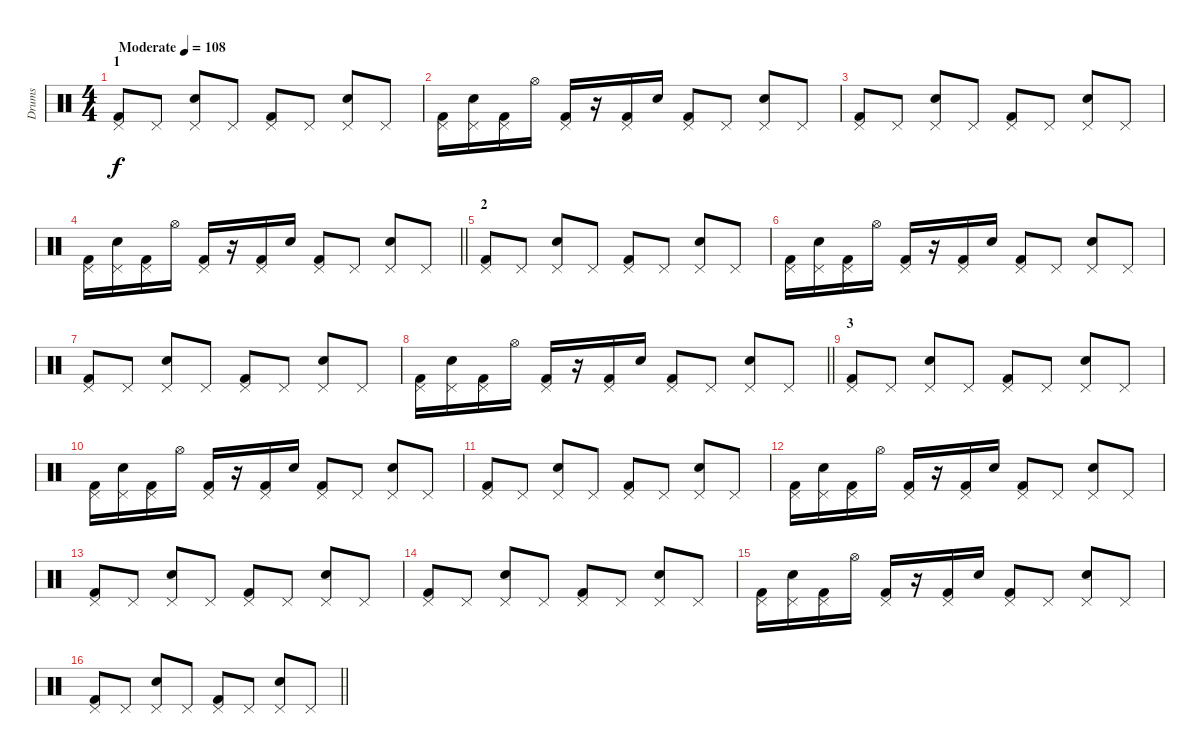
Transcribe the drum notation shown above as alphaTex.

\track ("Drums" "Drums") {instrument percussion}
\staff {score}
\articulation defaults
\ts (4 4)
\section ("" "1")
\tempo (108 "Moderate")
\clef neutral
\ks c
("Pedal Hi-Hat (hit)" "Kick (hit) 2").8{dy f} "Pedal Hi-Hat (hit)".8 ("Pedal Hi-Hat (hit)" "Electric Snare (hit)").8 "Pedal Hi-Hat (hit)".8 ("Pedal Hi-Hat (hit)" "Kick (hit) 2").8 "Pedal Hi-Hat (hit)".8 ("Pedal Hi-Hat (hit)" "Electric Snare (hit)").8 "Pedal Hi-Hat (hit)".8 |
("Pedal Hi-Hat (hit)" "Kick (hit) 2").16 ("Pedal Hi-Hat (hit)" "Electric Snare (hit)").16 ("Pedal Hi-Hat (hit)" "Kick (hit) 2").16 "Hi-Hat (open)".16 ("Pedal Hi-Hat (hit)" "Kick (hit) 2").16 r.16 ("Pedal Hi-Hat (hit)" "Kick (hit) 2").16 "Electric Snare (hit)".16 ("Pedal Hi-Hat (hit)" "Kick (hit) 2").8 "Pedal Hi-Hat (hit)".8 ("Pedal Hi-Hat (hit)" "Electric Snare (hit)").8 "Pedal Hi-Hat (hit)".8 |
("Pedal Hi-Hat (hit)" "Kick (hit) 2").8 "Pedal Hi-Hat (hit)".8 ("Pedal Hi-Hat (hit)" "Electric Snare (hit)").8 "Pedal Hi-Hat (hit)".8 ("Pedal Hi-Hat (hit)" "Kick (hit) 2").8 "Pedal Hi-Hat (hit)".8 ("Pedal Hi-Hat (hit)" "Electric Snare (hit)").8 "Pedal Hi-Hat (hit)".8 |
\barLineRight lightlight
("Pedal Hi-Hat (hit)" "Kick (hit) 2").16 ("Pedal Hi-Hat (hit)" "Electric Snare (hit)").16 ("Pedal Hi-Hat (hit)" "Kick (hit) 2").16 "Hi-Hat (open)".16 ("Pedal Hi-Hat (hit)" "Kick (hit) 2").16 r.16 ("Pedal Hi-Hat (hit)" "Kick (hit) 2").16 "Electric Snare (hit)".16 ("Pedal Hi-Hat (hit)" "Kick (hit) 2").8 "Pedal Hi-Hat (hit)".8 ("Pedal Hi-Hat (hit)" "Electric Snare (hit)").8 "Pedal Hi-Hat (hit)".8 |
\section ("" "2")
("Pedal Hi-Hat (hit)" "Kick (hit) 2").8 "Pedal Hi-Hat (hit)".8 ("Pedal Hi-Hat (hit)" "Electric Snare (hit)").8 "Pedal Hi-Hat (hit)".8 ("Pedal Hi-Hat (hit)" "Kick (hit) 2").8 "Pedal Hi-Hat (hit)".8 ("Pedal Hi-Hat (hit)" "Electric Snare (hit)").8 "Pedal Hi-Hat (hit)".8 |
("Pedal Hi-Hat (hit)" "Kick (hit) 2").16 ("Pedal Hi-Hat (hit)" "Electric Snare (hit)").16 ("Pedal Hi-Hat (hit)" "Kick (hit) 2").16 "Hi-Hat (open)".16 ("Pedal Hi-Hat (hit)" "Kick (hit) 2").16 r.16 ("Pedal Hi-Hat (hit)" "Kick (hit) 2").16 "Electric Snare (hit)".16 ("Pedal Hi-Hat (hit)" "Kick (hit) 2").8 "Pedal Hi-Hat (hit)".8 ("Pedal Hi-Hat (hit)" "Electric Snare (hit)").8 "Pedal Hi-Hat (hit)".8 |
("Pedal Hi-Hat (hit)" "Kick (hit) 2").8 "Pedal Hi-Hat (hit)".8 ("Pedal Hi-Hat (hit)" "Electric Snare (hit)").8 "Pedal Hi-Hat (hit)".8 ("Pedal Hi-Hat (hit)" "Kick (hit) 2").8 "Pedal Hi-Hat (hit)".8 ("Pedal Hi-Hat (hit)" "Electric Snare (hit)").8 "Pedal Hi-Hat (hit)".8 |
\barLineRight lightlight
("Pedal Hi-Hat (hit)" "Kick (hit) 2").16 ("Pedal Hi-Hat (hit)" "Electric Snare (hit)").16 ("Pedal Hi-Hat (hit)" "Kick (hit) 2").16 "Hi-Hat (open)".16 ("Pedal Hi-Hat (hit)" "Kick (hit) 2").16 r.16 ("Pedal Hi-Hat (hit)" "Kick (hit) 2").16 "Electric Snare (hit)".16 ("Pedal Hi-Hat (hit)" "Kick (hit) 2").8 "Pedal Hi-Hat (hit)".8 ("Pedal Hi-Hat (hit)" "Electric Snare (hit)").8 "Pedal Hi-Hat (hit)".8 |
\section ("" "3")
("Pedal Hi-Hat (hit)" "Kick (hit) 2").8 "Pedal Hi-Hat (hit)".8 ("Pedal Hi-Hat (hit)" "Electric Snare (hit)").8 "Pedal Hi-Hat (hit)".8 ("Pedal Hi-Hat (hit)" "Kick (hit) 2").8 "Pedal Hi-Hat (hit)".8 ("Pedal Hi-Hat (hit)" "Electric Snare (hit)").8 "Pedal Hi-Hat (hit)".8 |
("Pedal Hi-Hat (hit)" "Kick (hit) 2").16 ("Pedal Hi-Hat (hit)" "Electric Snare (hit)").16 ("Pedal Hi-Hat (hit)" "Kick (hit) 2").16 "Hi-Hat (open)".16 ("Pedal Hi-Hat (hit)" "Kick (hit) 2").16 r.16 ("Pedal Hi-Hat (hit)" "Kick (hit) 2").16 "Electric Snare (hit)".16 ("Pedal Hi-Hat (hit)" "Kick (hit) 2").8 "Pedal Hi-Hat (hit)".8 ("Pedal Hi-Hat (hit)" "Electric Snare (hit)").8 "Pedal Hi-Hat (hit)".8 |
("Pedal Hi-Hat (hit)" "Kick (hit) 2").8 "Pedal Hi-Hat (hit)".8 ("Pedal Hi-Hat (hit)" "Electric Snare (hit)").8 "Pedal Hi-Hat (hit)".8 ("Pedal Hi-Hat (hit)" "Kick (hit) 2").8 "Pedal Hi-Hat (hit)".8 ("Pedal Hi-Hat (hit)" "Electric Snare (hit)").8 "Pedal Hi-Hat (hit)".8 |
("Pedal Hi-Hat (hit)" "Kick (hit) 2").16 ("Pedal Hi-Hat (hit)" "Electric Snare (hit)").16 ("Pedal Hi-Hat (hit)" "Kick (hit) 2").16 "Hi-Hat (open)".16 ("Pedal Hi-Hat (hit)" "Kick (hit) 2").16 r.16 ("Pedal Hi-Hat (hit)" "Kick (hit) 2").16 "Electric Snare (hit)".16 ("Pedal Hi-Hat (hit)" "Kick (hit) 2").8 "Pedal Hi-Hat (hit)".8 ("Pedal Hi-Hat (hit)" "Electric Snare (hit)").8 "Pedal Hi-Hat (hit)".8 |
("Pedal Hi-Hat (hit)" "Kick (hit) 2").8 "Pedal Hi-Hat (hit)".8 ("Pedal Hi-Hat (hit)" "Electric Snare (hit)").8 "Pedal Hi-Hat (hit)".8 ("Pedal Hi-Hat (hit)" "Kick (hit) 2").8 "Pedal Hi-Hat (hit)".8 ("Pedal Hi-Hat (hit)" "Electric Snare (hit)").8 "Pedal Hi-Hat (hit)".8 |
("Pedal Hi-Hat (hit)" "Kick (hit) 2").8 "Pedal Hi-Hat (hit)".8 ("Pedal Hi-Hat (hit)" "Electric Snare (hit)").8 "Pedal Hi-Hat (hit)".8 ("Pedal Hi-Hat (hit)" "Kick (hit) 2").8 "Pedal Hi-Hat (hit)".8 ("Pedal Hi-Hat (hit)" "Electric Snare (hit)").8 "Pedal Hi-Hat (hit)".8 |
("Pedal Hi-Hat (hit)" "Kick (hit) 2").16 ("Pedal Hi-Hat (hit)" "Electric Snare (hit)").16 ("Pedal Hi-Hat (hit)" "Kick (hit) 2").16 "Hi-Hat (open)".16 ("Pedal Hi-Hat (hit)" "Kick (hit) 2").16 r.16 ("Pedal Hi-Hat (hit)" "Kick (hit) 2").16 "Electric Snare (hit)".16 ("Pedal Hi-Hat (hit)" "Kick (hit) 2").8 "Pedal Hi-Hat (hit)".8 ("Pedal Hi-Hat (hit)" "Electric Snare (hit)").8 "Pedal Hi-Hat (hit)".8 |
\barLineRight lightlight
("Pedal Hi-Hat (hit)" "Kick (hit) 2").8 "Pedal Hi-Hat (hit)".8 ("Pedal Hi-Hat (hit)" "Electric Snare (hit)").8 "Pedal Hi-Hat (hit)".8 ("Pedal Hi-Hat (hit)" "Kick (hit) 2").8 "Pedal Hi-Hat (hit)".8 ("Pedal Hi-Hat (hit)" "Electric Snare (hit)").8 "Pedal Hi-Hat (hit)".8
